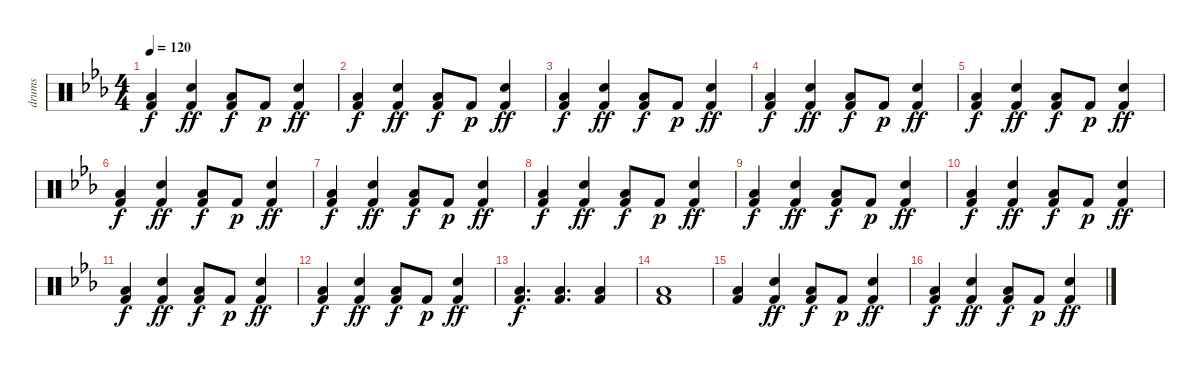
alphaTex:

\track ("drums" "drums") {instrument percussion}
\staff {score}
\articulation defaults
\ts (4 4)
\tempo 120
\clef neutral
\ks cminor
("Kick (hit) 2" "Low Floor Tom (hit)").4{dy f} ("Kick (hit) 2" "Hand Clap (hit)").4{dy ff} ("Kick (hit) 2" "Low Floor Tom (hit)").8{dy f} "Kick (hit) 2".8{dy p} ("Kick (hit) 2" "Hand Clap (hit)").4{dy ff} |
("Kick (hit) 2" "Low Floor Tom (hit)").4{dy f} ("Kick (hit) 2" "Hand Clap (hit)").4{dy ff} ("Kick (hit) 2" "Low Floor Tom (hit)").8{dy f} "Kick (hit) 2".8{dy p} ("Kick (hit) 2" "Hand Clap (hit)").4{dy ff} |
("Kick (hit) 2" "Low Floor Tom (hit)").4{dy f} ("Kick (hit) 2" "Hand Clap (hit)").4{dy ff} ("Kick (hit) 2" "Low Floor Tom (hit)").8{dy f} "Kick (hit) 2".8{dy p} ("Kick (hit) 2" "Hand Clap (hit)").4{dy ff} |
("Kick (hit) 2" "Low Floor Tom (hit)").4{dy f} ("Kick (hit) 2" "Hand Clap (hit)").4{dy ff} ("Kick (hit) 2" "Low Floor Tom (hit)").8{dy f} "Kick (hit) 2".8{dy p} ("Kick (hit) 2" "Hand Clap (hit)").4{dy ff} |
("Kick (hit) 2" "Low Floor Tom (hit)").4{dy f} ("Kick (hit) 2" "Hand Clap (hit)").4{dy ff} ("Kick (hit) 2" "Low Floor Tom (hit)").8{dy f} "Kick (hit) 2".8{dy p} ("Kick (hit) 2" "Hand Clap (hit)").4{dy ff} |
("Kick (hit) 2" "Low Floor Tom (hit)").4{dy f} ("Kick (hit) 2" "Hand Clap (hit)").4{dy ff} ("Kick (hit) 2" "Low Floor Tom (hit)").8{dy f} "Kick (hit) 2".8{dy p} ("Kick (hit) 2" "Hand Clap (hit)").4{dy ff} |
("Kick (hit) 2" "Low Floor Tom (hit)").4{dy f} ("Kick (hit) 2" "Hand Clap (hit)").4{dy ff} ("Kick (hit) 2" "Low Floor Tom (hit)").8{dy f} "Kick (hit) 2".8{dy p} ("Kick (hit) 2" "Hand Clap (hit)").4{dy ff} |
("Kick (hit) 2" "Low Floor Tom (hit)").4{dy f} ("Kick (hit) 2" "Hand Clap (hit)").4{dy ff} ("Kick (hit) 2" "Low Floor Tom (hit)").8{dy f} "Kick (hit) 2".8{dy p} ("Kick (hit) 2" "Hand Clap (hit)").4{dy ff} |
("Kick (hit) 2" "Low Floor Tom (hit)").4{dy f} ("Kick (hit) 2" "Hand Clap (hit)").4{dy ff} ("Kick (hit) 2" "Low Floor Tom (hit)").8{dy f} "Kick (hit) 2".8{dy p} ("Kick (hit) 2" "Hand Clap (hit)").4{dy ff} |
("Kick (hit) 2" "Low Floor Tom (hit)").4{dy f} ("Kick (hit) 2" "Hand Clap (hit)").4{dy ff} ("Kick (hit) 2" "Low Floor Tom (hit)").8{dy f} "Kick (hit) 2".8{dy p} ("Kick (hit) 2" "Hand Clap (hit)").4{dy ff} |
("Kick (hit) 2" "Low Floor Tom (hit)").4{dy f} ("Kick (hit) 2" "Hand Clap (hit)").4{dy ff} ("Kick (hit) 2" "Low Floor Tom (hit)").8{dy f} "Kick (hit) 2".8{dy p} ("Kick (hit) 2" "Hand Clap (hit)").4{dy ff} |
("Kick (hit) 2" "Low Floor Tom (hit)").4{dy f} ("Kick (hit) 2" "Hand Clap (hit)").4{dy ff} ("Kick (hit) 2" "Low Floor Tom (hit)").8{dy f} "Kick (hit) 2".8{dy p} ("Kick (hit) 2" "Hand Clap (hit)").4{dy ff} |
("Kick (hit) 2" "Low Floor Tom (hit)").4{d dy f} ("Kick (hit) 2" "Low Floor Tom (hit)").4{d} ("Kick (hit) 2" "Low Floor Tom (hit)").4 |
("Kick (hit) 2" "Low Floor Tom (hit)").1 |
("Kick (hit) 2" "Low Floor Tom (hit)").4 ("Kick (hit) 2" "Hand Clap (hit)").4{dy ff} ("Kick (hit) 2" "Low Floor Tom (hit)").8{dy f} "Kick (hit) 2".8{dy p} ("Kick (hit) 2" "Hand Clap (hit)").4{dy ff} |
("Kick (hit) 2" "Low Floor Tom (hit)").4{dy f} ("Kick (hit) 2" "Hand Clap (hit)").4{dy ff} ("Kick (hit) 2" "Low Floor Tom (hit)").8{dy f} "Kick (hit) 2".8{dy p} ("Kick (hit) 2" "Hand Clap (hit)").4{dy ff}
